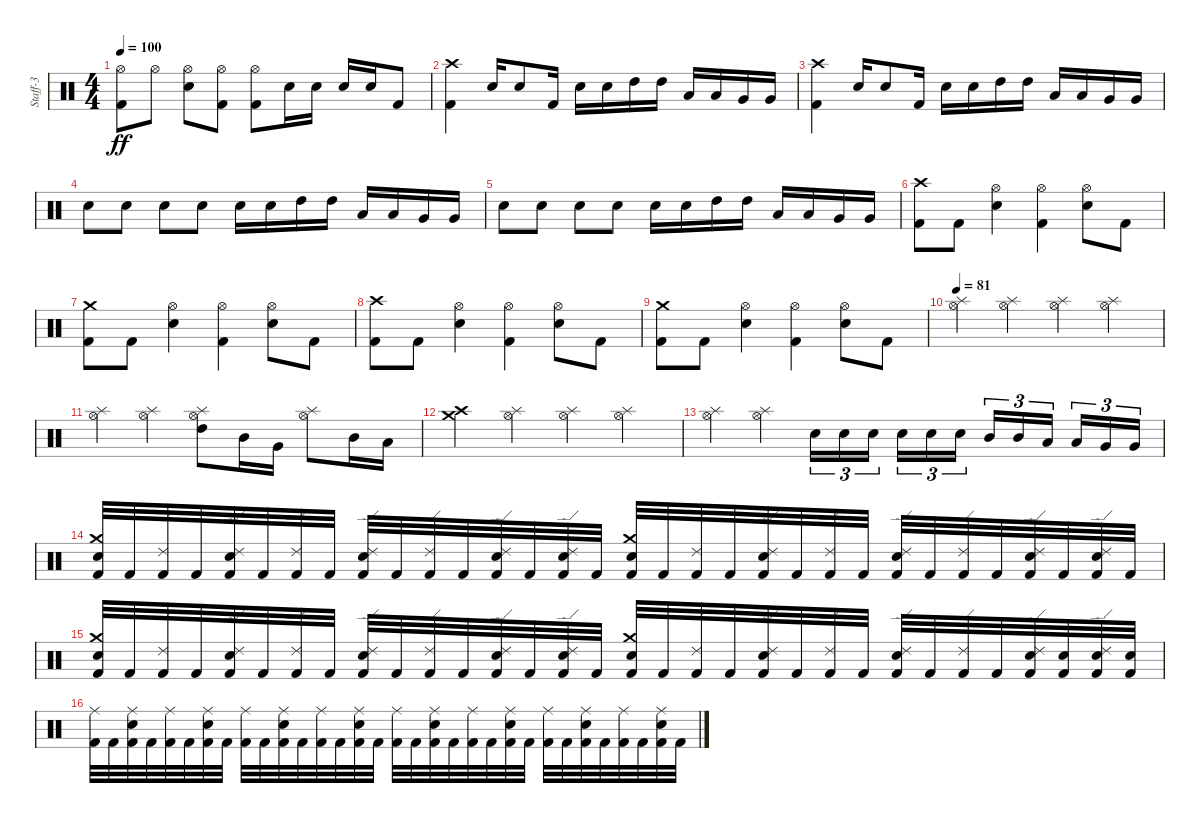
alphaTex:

\track ("Staff-3" "Staff-3") {instrument percussion}
\staff {score}
\articulation defaults
\ts (4 4)
\tempo 100
\clef neutral
\ks c
("Kick (hit) 2" "Hi-Hat (open)").8{dy ff} "Hi-Hat (open)".8 ("Snare (hit) 2" "Hi-Hat (open)").8 ("Kick (hit) 2" "Hi-Hat (open)").8 ("Kick (hit) 2" "Hi-Hat (open)").8 "Snare (hit) 2".16 "Snare (hit) 2".16 "Snare (hit) 2".16 "Snare (hit) 2".16 "Kick (hit) 2".8 |
("Kick (hit) 2" "Crash high (hit)").4 "Snare (hit) 2".16 "Snare (hit) 2".8 "Kick (hit) 2".16 "Snare (hit) 2".16 "Snare (hit) 2".16 "High Tom (hit)".16 "High Tom (hit)".16 "Low Tom (hit)".16 "Low Tom (hit)".16 "Very Low Tom (hit)".16 "Very Low Tom (hit)".16 |
("Kick (hit) 2" "Crash high (hit)").4 "Snare (hit) 2".16 "Snare (hit) 2".8 "Kick (hit) 2".16 "Snare (hit) 2".16 "Snare (hit) 2".16 "High Tom (hit)".16 "High Tom (hit)".16 "Low Tom (hit)".16 "Low Tom (hit)".16 "Very Low Tom (hit)".16 "Very Low Tom (hit)".16 |
"Snare (hit) 2".8{balance 15} "Snare (hit) 2".8 "Snare (hit) 2".8 "Snare (hit) 2".8 "Snare (hit) 2".16{balance 15} "Snare (hit) 2".16{balance 14} "High Tom (hit)".16{balance 12} "High Tom (hit)".16{balance 10} "Low Tom (hit)".16{balance 8} "Low Tom (hit)".16{balance 6} "Very Low Tom (hit)".16{balance 4} "Very Low Tom (hit)".16 |
"Snare (hit) 2".8{balance 1} "Snare (hit) 2".8 "Snare (hit) 2".8 "Snare (hit) 2".8 "Snare (hit) 2".16{balance 1} "Snare (hit) 2".16{balance 6} "High Tom (hit)".16{balance 12} "High Tom (hit)".16{balance 10} "Low Tom (hit)".16{balance 8} "Low Tom (hit)".16{balance 6} "Very Low Tom (hit)".16{balance 4} "Very Low Tom (hit)".16 |
("Kick (hit) 2" "Crash high (hit)").8{balance 8} "Kick (hit) 2".8 ("Snare (hit) 2" "Hi-Hat (open)").4 ("Kick (hit) 2" "Hi-Hat (open)").4 ("Snare (hit) 2" "Hi-Hat (open)").8 "Kick (hit) 2".8 |
("Kick (hit) 2" "Crash medium (hit)").8 "Kick (hit) 2".8 ("Snare (hit) 2" "Hi-Hat (open)").4 ("Kick (hit) 2" "Hi-Hat (open)").4 ("Snare (hit) 2" "Hi-Hat (open)").8 "Kick (hit) 2".8 |
("Kick (hit) 2" "Crash high (hit)").8 "Kick (hit) 2".8 ("Snare (hit) 2" "Hi-Hat (open)").4 ("Kick (hit) 2" "Hi-Hat (open)").4 ("Snare (hit) 2" "Hi-Hat (open)").8 "Kick (hit) 2".8 |
("Kick (hit) 2" "Crash medium (hit)").8 "Kick (hit) 2".8 ("Snare (hit) 2" "Hi-Hat (open)").4 ("Kick (hit) 2" "Hi-Hat (open)").4 ("Snare (hit) 2" "Hi-Hat (open)").8 "Kick (hit) 2".8 |
\tempo 81
("Hi-Hat (open)" "Splash (hit)").4 ("Hi-Hat (open)" "Splash (hit)").4 ("Hi-Hat (open)" "Splash (hit)").4 ("Hi-Hat (open)" "Splash (hit)").4 |
("Hi-Hat (open)" "Splash (hit)").4 ("Hi-Hat (open)" "Splash (hit)").4 ("Hi-Hat (open)" "High Tom (hit)" "Splash (hit)").8 "Mid Tom (hit)".16 "Very Low Tom (hit)".16 ("Hi-Hat (open)" "Splash (hit)").8 "Mid Tom (hit)".16 "Low Tom (hit)".16 |
("Crash high (hit)" "Crash medium (hit)").4 ("Hi-Hat (open)" "Splash (hit)").4 ("Hi-Hat (open)" "Splash (hit)").4 ("Hi-Hat (open)" "Splash (hit)").4 |
("Hi-Hat (open)" "Splash (hit)").4 ("Hi-Hat (open)" "Splash (hit)").4 "Snare (hit) 2".16{tu (3 2)} "Snare (hit) 2".16{tu (3 2)} "Snare (hit) 2".16{tu (3 2)} "Snare (hit) 2".16{tu (3 2)} "Snare (hit) 2".16{tu (3 2)} "Snare (hit) 2".16{tu (3 2)} "Mid Tom (hit)".16{tu (3 2)} "Mid Tom (hit)".16{tu (3 2)} "Low Tom (hit)".16{tu (3 2)} "Low Tom (hit)".16{tu (3 2)} "Very Low Tom (hit)".16{tu (3 2)} "Very Low Tom (hit)".16{tu (3 2)} |
("Kick (hit) 2" "Electric Snare (hit)" "Crash medium (hit)").32 "Kick (hit) 2".32 ("Kick (hit) 2" "Ride (edge) 2").32 "Kick (hit) 2".32 ("Kick (hit) 2" "Electric Snare (hit)" "Ride (edge) 2").32 "Kick (hit) 2".32 ("Kick (hit) 2" "Ride (edge) 2").32 "Kick (hit) 2".32 ("Kick (hit) 2" "Electric Snare (hit)" "Ride (edge) 2").32 "Kick (hit) 2".32 ("Kick (hit) 2" "Ride (edge) 2").32 "Kick (hit) 2".32 ("Kick (hit) 2" "Electric Snare (hit)" "Ride (edge) 2").32 "Kick (hit) 2".32 ("Kick (hit) 2" "Electric Snare (hit)" "Ride (edge) 2").32 "Kick (hit) 2".32 ("Kick (hit) 2" "Electric Snare (hit)" "Crash medium (hit)").32 "Kick (hit) 2".32 ("Kick (hit) 2" "Ride (edge) 2").32 "Kick (hit) 2".32 ("Kick (hit) 2" "Electric Snare (hit)" "Ride (edge) 2").32 "Kick (hit) 2".32 ("Kick (hit) 2" "Ride (edge) 2").32 "Kick (hit) 2".32 ("Kick (hit) 2" "Electric Snare (hit)" "Ride (edge) 2").32 "Kick (hit) 2".32 ("Kick (hit) 2" "Ride (edge) 2").32 "Kick (hit) 2".32 ("Kick (hit) 2" "Electric Snare (hit)" "Ride (edge) 2").32 "Kick (hit) 2".32 ("Kick (hit) 2" "Electric Snare (hit)" "Ride (edge) 2").32 "Kick (hit) 2".32 |
("Kick (hit) 2" "Electric Snare (hit)" "Crash medium (hit)").32 "Kick (hit) 2".32 ("Kick (hit) 2" "Ride (edge) 2").32 "Kick (hit) 2".32 ("Kick (hit) 2" "Electric Snare (hit)" "Ride (edge) 2").32 "Kick (hit) 2".32 ("Kick (hit) 2" "Ride (edge) 2").32 "Kick (hit) 2".32 ("Kick (hit) 2" "Electric Snare (hit)" "Ride (edge) 2").32 "Kick (hit) 2".32 ("Kick (hit) 2" "Ride (edge) 2").32 "Kick (hit) 2".32 ("Kick (hit) 2" "Electric Snare (hit)" "Ride (edge) 2").32 "Kick (hit) 2".32 ("Kick (hit) 2" "Electric Snare (hit)" "Ride (edge) 2").32 "Kick (hit) 2".32 ("Kick (hit) 2" "Electric Snare (hit)" "Crash medium (hit)").32 "Kick (hit) 2".32 ("Kick (hit) 2" "Ride (edge) 2").32 "Kick (hit) 2".32 ("Kick (hit) 2" "Electric Snare (hit)" "Ride (edge) 2").32 "Kick (hit) 2".32 ("Kick (hit) 2" "Ride (edge) 2").32 "Kick (hit) 2".32 ("Kick (hit) 2" "Electric Snare (hit)" "Ride (edge) 2").32 "Kick (hit) 2".32 ("Kick (hit) 2" "Ride (edge) 2").32 "Kick (hit) 2".32 ("Kick (hit) 2" "Electric Snare (hit)" "Ride (edge) 2").32 ("Kick (hit) 2" "Electric Snare (hit)").32 ("Kick (hit) 2" "Electric Snare (hit)" "Ride (edge) 2").32 ("Kick (hit) 2" "Electric Snare (hit)").32 |
("Kick (hit) 2" "Ride (middle)").32 "Kick (hit) 2".32 ("Kick (hit) 2" "Electric Snare (hit)" "Ride (middle)").32 "Kick (hit) 2".32 ("Kick (hit) 2" "Ride (middle)").32 "Kick (hit) 2".32 ("Kick (hit) 2" "Electric Snare (hit)" "Ride (middle)").32 "Kick (hit) 2".32 ("Kick (hit) 2" "Ride (middle)").32 "Kick (hit) 2".32 ("Kick (hit) 2" "Electric Snare (hit)" "Ride (middle)").32 "Kick (hit) 2".32 ("Kick (hit) 2" "Ride (middle)").32 "Kick (hit) 2".32 ("Kick (hit) 2" "Electric Snare (hit)" "Ride (middle)").32 "Kick (hit) 2".32 ("Kick (hit) 2" "Ride (middle)").32 "Kick (hit) 2".32 ("Kick (hit) 2" "Electric Snare (hit)" "Ride (middle)").32 "Kick (hit) 2".32 ("Kick (hit) 2" "Ride (middle)").32 "Kick (hit) 2".32 ("Kick (hit) 2" "Electric Snare (hit)" "Ride (middle)").32 "Kick (hit) 2".32 ("Kick (hit) 2" "Ride (middle)").32 "Kick (hit) 2".32 ("Kick (hit) 2" "Electric Snare (hit)" "Ride (middle)").32 "Kick (hit) 2".32 ("Kick (hit) 2" "Ride (middle)").32 "Kick (hit) 2".32 ("Kick (hit) 2" "Electric Snare (hit)" "Ride (middle)").32 "Kick (hit) 2".32
